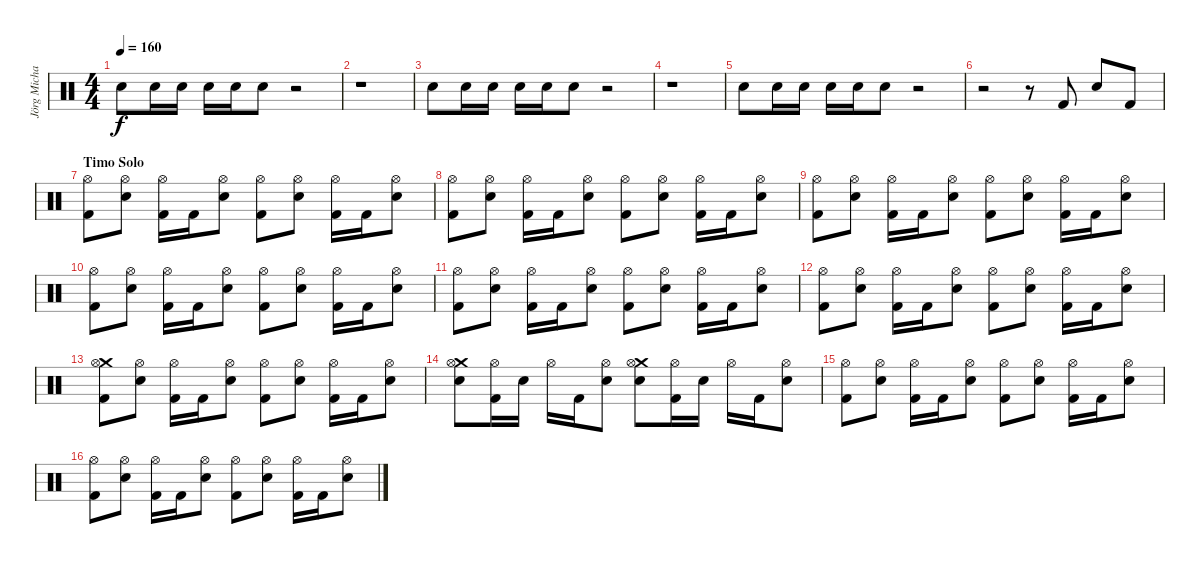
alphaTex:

\track ("Jörg Michael" "Jörg Micha") {instrument percussion}
\staff {score}
\articulation defaults
\ts (4 4)
\tempo 160
\clef neutral
\ks c "Electric Snare (hit)".8{dy f volume 10} "Electric Snare (hit)".16 "Electric Snare (hit)".16 "Electric Snare (hit)".16 "Electric Snare (hit)".16 "Electric Snare (hit)".8
r.2 |
r.1 |
"Electric Snare (hit)".8{volume 10} "Electric Snare (hit)".16 "Electric Snare (hit)".16 "Electric Snare (hit)".16 "Electric Snare (hit)".16 "Electric Snare (hit)".8 r.2 |
r.1 |
"Electric Snare (hit)".8{volume 10} "Electric Snare (hit)".16 "Electric Snare (hit)".16 "Electric Snare (hit)".16 "Electric Snare (hit)".16 "Electric Snare (hit)".8 r.2 |
r.2 r.8 "Kick (hit) 2".8 "Electric Snare (hit)".8 "Kick (hit) 2".8 |
\section ("" "Timo Solo")
("Hi-Hat (open)" "Kick (hit) 2").8 ("Hi-Hat (open)" "Electric Snare (hit)").8 ("Hi-Hat (open)" "Kick (hit) 2").16 "Kick (hit) 2".16 ("Hi-Hat (open)" "Electric Snare (hit)").8 ("Hi-Hat (open)" "Kick (hit) 2").8 ("Hi-Hat (open)" "Electric Snare (hit)").8 ("Hi-Hat (open)" "Kick (hit) 2").16 "Kick (hit) 2".16 ("Hi-Hat (open)" "Electric Snare (hit)").8 |
("Hi-Hat (open)" "Kick (hit) 2").8 ("Hi-Hat (open)" "Electric Snare (hit)").8 ("Hi-Hat (open)" "Kick (hit) 2").16 "Kick (hit) 2".16 ("Hi-Hat (open)" "Electric Snare (hit)").8 ("Hi-Hat (open)" "Kick (hit) 2").8 ("Hi-Hat (open)" "Electric Snare (hit)").8 ("Hi-Hat (open)" "Kick (hit) 2").16 "Kick (hit) 2".16 ("Hi-Hat (open)" "Electric Snare (hit)").8 |
("Hi-Hat (open)" "Kick (hit) 2").8 ("Hi-Hat (open)" "Electric Snare (hit)").8 ("Hi-Hat (open)" "Kick (hit) 2").16 "Kick (hit) 2".16 ("Hi-Hat (open)" "Electric Snare (hit)").8 ("Hi-Hat (open)" "Kick (hit) 2").8 ("Hi-Hat (open)" "Electric Snare (hit)").8 ("Hi-Hat (open)" "Kick (hit) 2").16 "Kick (hit) 2".16 ("Hi-Hat (open)" "Electric Snare (hit)").8 |
("Hi-Hat (open)" "Kick (hit) 2").8 ("Hi-Hat (open)" "Electric Snare (hit)").8 ("Hi-Hat (open)" "Kick (hit) 2").16 "Kick (hit) 2".16 ("Hi-Hat (open)" "Electric Snare (hit)").8 ("Hi-Hat (open)" "Kick (hit) 2").8 ("Hi-Hat (open)" "Electric Snare (hit)").8 ("Hi-Hat (open)" "Kick (hit) 2").16 "Kick (hit) 2".16 ("Hi-Hat (open)" "Electric Snare (hit)").8 |
("Hi-Hat (open)" "Kick (hit) 2").8 ("Hi-Hat (open)" "Electric Snare (hit)").8 ("Hi-Hat (open)" "Kick (hit) 2").16 "Kick (hit) 2".16 ("Hi-Hat (open)" "Electric Snare (hit)").8 ("Hi-Hat (open)" "Kick (hit) 2").8 ("Hi-Hat (open)" "Electric Snare (hit)").8 ("Hi-Hat (open)" "Kick (hit) 2").16 "Kick (hit) 2".16 ("Hi-Hat (open)" "Electric Snare (hit)").8 |
("Hi-Hat (open)" "Kick (hit) 2").8 ("Hi-Hat (open)" "Electric Snare (hit)").8 ("Hi-Hat (open)" "Kick (hit) 2").16 "Kick (hit) 2".16 ("Hi-Hat (open)" "Electric Snare (hit)").8 ("Hi-Hat (open)" "Kick (hit) 2").8 ("Hi-Hat (open)" "Electric Snare (hit)").8 ("Hi-Hat (open)" "Kick (hit) 2").16 "Kick (hit) 2".16 ("Hi-Hat (open)" "Electric Snare (hit)").8 |
("Crash medium (hit)" "Hi-Hat (open)" "Kick (hit) 2").8 ("Hi-Hat (open)" "Electric Snare (hit)").8 ("Hi-Hat (open)" "Kick (hit) 2").16 "Kick (hit) 2".16 ("Hi-Hat (open)" "Electric Snare (hit)").8 ("Hi-Hat (open)" "Kick (hit) 2").8 ("Hi-Hat (open)" "Electric Snare (hit)").8 ("Hi-Hat (open)" "Kick (hit) 2").16 "Kick (hit) 2".16 ("Hi-Hat (open)" "Electric Snare (hit)").8 |
("Crash medium (hit)" "Hi-Hat (open)" "Electric Snare (hit)").8 ("Hi-Hat (open)" "Kick (hit) 2").16 "Electric Snare (hit)".16 "Hi-Hat (open)".16 "Kick (hit) 2".16 ("Hi-Hat (open)" "Electric Snare (hit)").8 ("Crash medium (hit)" "Hi-Hat (open)" "Electric Snare (hit)").8 ("Hi-Hat (open)" "Kick (hit) 2").16 "Electric Snare (hit)".16 "Hi-Hat (open)".16 "Kick (hit) 2".16 ("Hi-Hat (open)" "Electric Snare (hit)").8 |
("Hi-Hat (open)" "Kick (hit) 2").8 ("Hi-Hat (open)" "Electric Snare (hit)").8 ("Hi-Hat (open)" "Kick (hit) 2").16 "Kick (hit) 2".16 ("Hi-Hat (open)" "Electric Snare (hit)").8 ("Hi-Hat (open)" "Kick (hit) 2").8 ("Hi-Hat (open)" "Electric Snare (hit)").8 ("Hi-Hat (open)" "Kick (hit) 2").16 "Kick (hit) 2".16 ("Hi-Hat (open)" "Electric Snare (hit)").8 |
("Hi-Hat (open)" "Kick (hit) 2").8 ("Hi-Hat (open)" "Electric Snare (hit)").8 ("Hi-Hat (open)" "Kick (hit) 2").16 "Kick (hit) 2".16 ("Hi-Hat (open)" "Electric Snare (hit)").8 ("Hi-Hat (open)" "Kick (hit) 2").8 ("Hi-Hat (open)" "Electric Snare (hit)").8 ("Hi-Hat (open)" "Kick (hit) 2").16 "Kick (hit) 2".16 ("Hi-Hat (open)" "Electric Snare (hit)").8
